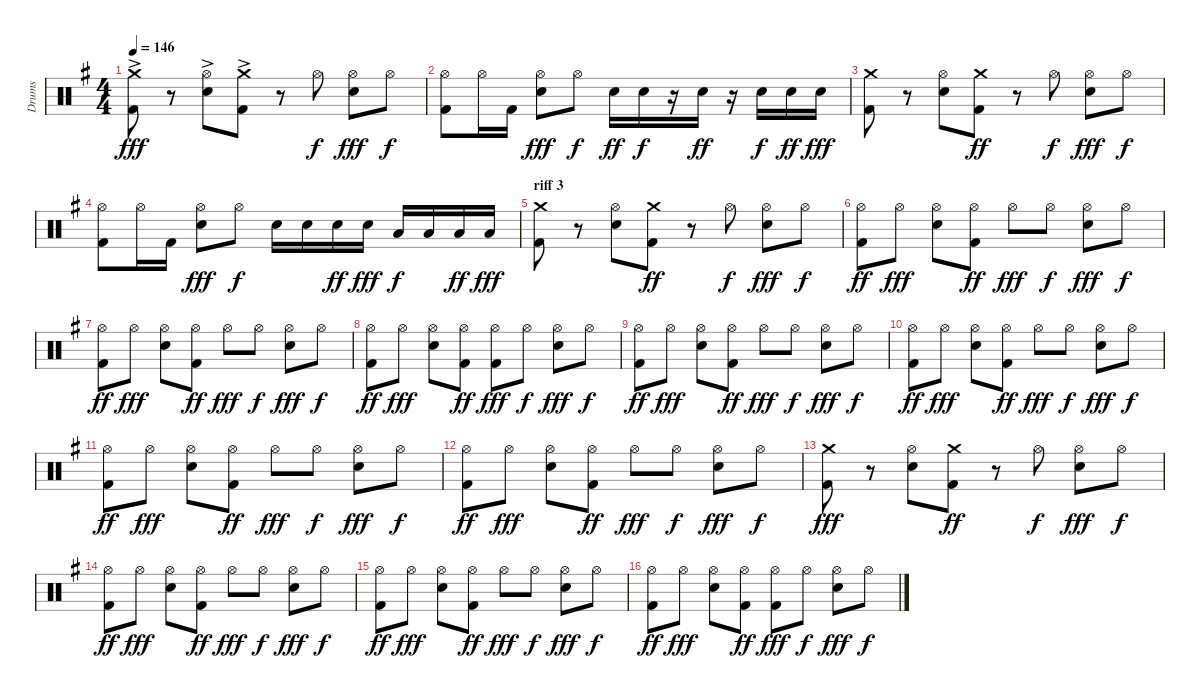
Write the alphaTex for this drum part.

\track ("Drums" "Drums") {instrument percussion}
\staff {score}
\articulation defaults
\ts (4 4)
\tempo 146
\clef neutral
\ks g
("Kick (hit) 2"{ac} "Crash medium (hit)"{ac}).8{dy fff} r.8 ("Snare (hit) 2"{ac} "Hi-Hat (open)"{ac}).8 ("Crash medium (hit)"{ac} "Kick (hit) 2"{ac}).8 r.8 "Hi-Hat (open)".8{dy f} ("Snare (hit) 2" "Hi-Hat (open)").8{dy fff} "Hi-Hat (open)".8{dy f} |
("Kick (hit) 2" "Hi-Hat (open)").8 "Hi-Hat (open)".16 "Kick (hit) 2".16 ("Snare (hit) 2" "Hi-Hat (open)").8{dy fff} "Hi-Hat (open)".8{dy f} "Snare (hit) 2".16{dy ff} "Snare (hit) 2".16{dy f} r.16 "Snare (hit) 2".16{dy ff} r.16 "Snare (hit) 2".16{dy f} "Snare (hit) 2".16{dy ff} "Snare (hit) 2".16{dy fff} |
("Kick (hit) 2" "Crash medium (hit)").8 r.8 ("Snare (hit) 2" "Hi-Hat (open)").8 ("Crash medium (hit)" "Kick (hit) 2").8{dy ff} r.8 "Hi-Hat (open)".8{dy f} ("Snare (hit) 2" "Hi-Hat (open)").8{dy fff} "Hi-Hat (open)".8{dy f} |
("Kick (hit) 2" "Hi-Hat (open)").8 "Hi-Hat (open)".16 "Kick (hit) 2".16 ("Snare (hit) 2" "Hi-Hat (open)").8{dy fff} "Hi-Hat (open)".8{dy f} "Snare (hit) 2".16 "Snare (hit) 2".16 "Snare (hit) 2".16{dy ff} "Snare (hit) 2".16{dy fff} "Low Tom (hit)".16{dy f} "Low Tom (hit)".16 "Low Tom (hit)".16{dy ff} "Low Tom (hit)".16{dy fff} |
\section ("" "riff 3")
("Kick (hit) 2" "Crash medium (hit)").8 r.8 ("Snare (hit) 2" "Hi-Hat (open)").8 ("Crash medium (hit)" "Kick (hit) 2").8{dy ff} r.8 "Hi-Hat (open)".8{dy f} ("Snare (hit) 2" "Hi-Hat (open)").8{dy fff} "Hi-Hat (open)".8{dy f} |
("Hi-Hat (open)" "Kick (hit) 2").8{dy ff} "Hi-Hat (open)".8{dy fff} ("Snare (hit) 2" "Hi-Hat (open)").8 ("Hi-Hat (open)" "Kick (hit) 2").8{dy ff} "Hi-Hat (open)".8{dy fff} "Hi-Hat (open)".8{dy f} ("Snare (hit) 2" "Hi-Hat (open)").8{dy fff} "Hi-Hat (open)".8{dy f} |
("Hi-Hat (open)" "Kick (hit) 2").8{dy ff} "Hi-Hat (open)".8{dy fff} ("Snare (hit) 2" "Hi-Hat (open)").8 ("Hi-Hat (open)" "Kick (hit) 2").8{dy ff} "Hi-Hat (open)".8{dy fff} "Hi-Hat (open)".8{dy f} ("Snare (hit) 2" "Hi-Hat (open)").8{dy fff} "Hi-Hat (open)".8{dy f} |
("Hi-Hat (open)" "Kick (hit) 2").8{dy ff} "Hi-Hat (open)".8{dy fff} ("Snare (hit) 2" "Hi-Hat (open)").8 ("Hi-Hat (open)" "Kick (hit) 2").8{dy ff} ("Kick (hit) 2" "Hi-Hat (open)").8{dy fff} "Hi-Hat (open)".8{dy f} ("Snare (hit) 2" "Hi-Hat (open)").8{dy fff} "Hi-Hat (open)".8{dy f} |
("Hi-Hat (open)" "Kick (hit) 2").8{dy ff} "Hi-Hat (open)".8{dy fff} ("Snare (hit) 2" "Hi-Hat (open)").8 ("Hi-Hat (open)" "Kick (hit) 2").8{dy ff} "Hi-Hat (open)".8{dy fff} "Hi-Hat (open)".8{dy f} ("Snare (hit) 2" "Hi-Hat (open)").8{dy fff} "Hi-Hat (open)".8{dy f} |
("Hi-Hat (open)" "Kick (hit) 2").8{dy ff} "Hi-Hat (open)".8{dy fff} ("Snare (hit) 2" "Hi-Hat (open)").8 ("Hi-Hat (open)" "Kick (hit) 2").8{dy ff} "Hi-Hat (open)".8{dy fff} "Hi-Hat (open)".8{dy f} ("Snare (hit) 2" "Hi-Hat (open)").8{dy fff} "Hi-Hat (open)".8{dy f} |
("Hi-Hat (open)" "Kick (hit) 2").8{dy ff} "Hi-Hat (open)".8{dy fff} ("Snare (hit) 2" "Hi-Hat (open)").8 ("Hi-Hat (open)" "Kick (hit) 2").8{dy ff} "Hi-Hat (open)".8{dy fff} "Hi-Hat (open)".8{dy f} ("Snare (hit) 2" "Hi-Hat (open)").8{dy fff} "Hi-Hat (open)".8{dy f} |
("Hi-Hat (open)" "Kick (hit) 2").8{dy ff} "Hi-Hat (open)".8{dy fff} ("Snare (hit) 2" "Hi-Hat (open)").8 ("Hi-Hat (open)" "Kick (hit) 2").8{dy ff} "Hi-Hat (open)".8{dy fff} "Hi-Hat (open)".8{dy f} ("Snare (hit) 2" "Hi-Hat (open)").8{dy fff} "Hi-Hat (open)".8{dy f} |
("Kick (hit) 2" "Crash medium (hit)").8{dy fff} r.8 ("Snare (hit) 2" "Hi-Hat (open)").8 ("Crash medium (hit)" "Kick (hit) 2").8{dy ff} r.8 "Hi-Hat (open)".8{dy f} ("Snare (hit) 2" "Hi-Hat (open)").8{dy fff} "Hi-Hat (open)".8{dy f} |
("Hi-Hat (open)" "Kick (hit) 2").8{dy ff} "Hi-Hat (open)".8{dy fff} ("Snare (hit) 2" "Hi-Hat (open)").8 ("Hi-Hat (open)" "Kick (hit) 2").8{dy ff} "Hi-Hat (open)".8{dy fff} "Hi-Hat (open)".8{dy f} ("Snare (hit) 2" "Hi-Hat (open)").8{dy fff} "Hi-Hat (open)".8{dy f} |
("Hi-Hat (open)" "Kick (hit) 2").8{dy ff} "Hi-Hat (open)".8{dy fff} ("Snare (hit) 2" "Hi-Hat (open)").8 ("Hi-Hat (open)" "Kick (hit) 2").8{dy ff} "Hi-Hat (open)".8{dy fff} "Hi-Hat (open)".8{dy f} ("Snare (hit) 2" "Hi-Hat (open)").8{dy fff} "Hi-Hat (open)".8{dy f} |
("Hi-Hat (open)" "Kick (hit) 2").8{dy ff} "Hi-Hat (open)".8{dy fff} ("Snare (hit) 2" "Hi-Hat (open)").8 ("Hi-Hat (open)" "Kick (hit) 2").8{dy ff} ("Kick (hit) 2" "Hi-Hat (open)").8{dy fff} "Hi-Hat (open)".8{dy f} ("Snare (hit) 2" "Hi-Hat (open)").8{dy fff} "Hi-Hat (open)".8{dy f}
